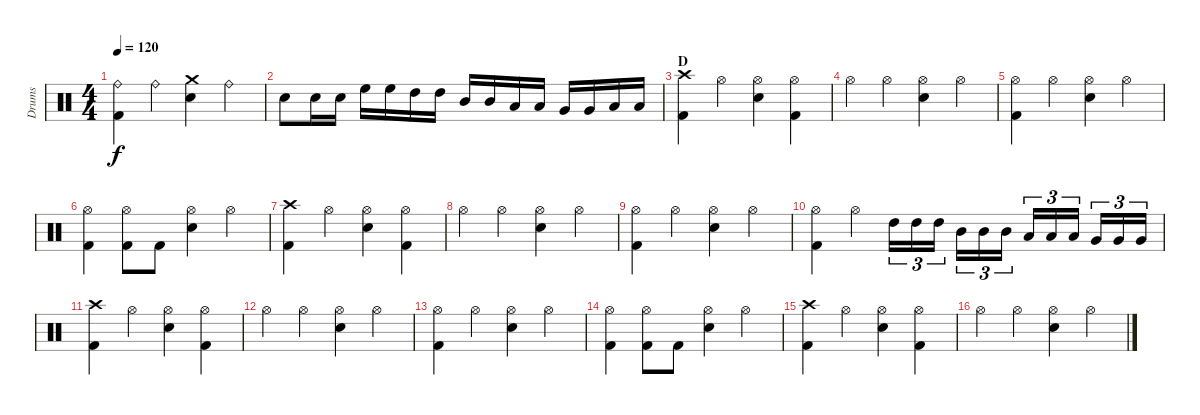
\track ("Drums" "Drums") {instrument percussion}
\staff {score}
\articulation defaults
\ts (4 4)
\tempo 120
\clef neutral
\ks c
("Ride (bell)" "Kick (hit) 2").4{dy f} "Ride (bell)".4 ("Crash medium (hit)" "Snare (hit) 2").4 "Ride (bell)".4 |
"Snare (hit) 2".8 "Snare (hit) 2".16 "Snare (hit) 2".16 "High Floor Tom (hit)".16 "High Floor Tom (hit)".16 "High Tom (hit)".16 "High Tom (hit)".16 "Mid Tom (hit)".16 "Mid Tom (hit)".16 "Low Tom (hit)".16 "Low Tom (hit)".16 "Very Low Tom (hit)".16 "Very Low Tom (hit)".16 "Low Floor Tom (hit)".16 "Low Floor Tom (hit)".16 |
\section ("" "D")
("Crash high (hit)" "Kick (hit) 2").4 "Hi-Hat (open)".4 ("Hi-Hat (open)" "Snare (hit) 2").4 ("Hi-Hat (open)" "Kick (hit) 2").4 |
"Hi-Hat (open)".4 "Hi-Hat (open)".4 ("Hi-Hat (open)" "Snare (hit) 2").4 "Hi-Hat (open)".4 |
("Hi-Hat (open)" "Kick (hit) 2").4 "Hi-Hat (open)".4 ("Hi-Hat (open)" "Snare (hit) 2").4 "Hi-Hat (open)".4 |
("Hi-Hat (open)" "Kick (hit) 2").4 ("Hi-Hat (open)" "Kick (hit) 2").8 "Kick (hit) 2".8 ("Hi-Hat (open)" "Snare (hit) 2").4 "Hi-Hat (open)".4 |
("Crash high (hit)" "Kick (hit) 2").4 "Hi-Hat (open)".4 ("Hi-Hat (open)" "Snare (hit) 2").4 ("Hi-Hat (open)" "Kick (hit) 2").4 |
"Hi-Hat (open)".4 "Hi-Hat (open)".4 ("Hi-Hat (open)" "Snare (hit) 2").4 "Hi-Hat (open)".4 |
("Hi-Hat (open)" "Kick (hit) 2").4 "Hi-Hat (open)".4 ("Hi-Hat (open)" "Snare (hit) 2").4 "Hi-Hat (open)".4 |
("Hi-Hat (open)" "Kick (hit) 2").4 "Hi-Hat (open)".4 "High Tom (hit)".16{tu (3 2)} "High Tom (hit)".16{tu (3 2)} "High Tom (hit)".16{tu (3 2)} "Mid Tom (hit)".16{tu (3 2)} "Mid Tom (hit)".16{tu (3 2)} "Mid Tom (hit)".16{tu (3 2)} "Low Tom (hit)".16{tu (3 2)} "Low Tom (hit)".16{tu (3 2)} "Low Tom (hit)".16{tu (3 2)} "Very Low Tom (hit)".16{tu (3 2)} "Very Low Tom (hit)".16{tu (3 2)} "Very Low Tom (hit)".16{tu (3 2)} |
("Crash high (hit)" "Kick (hit) 2").4 "Hi-Hat (open)".4 ("Hi-Hat (open)" "Snare (hit) 2").4 ("Hi-Hat (open)" "Kick (hit) 2").4 |
"Hi-Hat (open)".4 "Hi-Hat (open)".4 ("Hi-Hat (open)" "Snare (hit) 2").4 "Hi-Hat (open)".4 |
("Hi-Hat (open)" "Kick (hit) 2").4 "Hi-Hat (open)".4 ("Hi-Hat (open)" "Snare (hit) 2").4 "Hi-Hat (open)".4 |
("Hi-Hat (open)" "Kick (hit) 2").4 ("Hi-Hat (open)" "Kick (hit) 2").8 "Kick (hit) 2".8 ("Hi-Hat (open)" "Snare (hit) 2").4 "Hi-Hat (open)".4 |
("Crash high (hit)" "Kick (hit) 2").4 "Hi-Hat (open)".4 ("Hi-Hat (open)" "Snare (hit) 2").4 ("Hi-Hat (open)" "Kick (hit) 2").4 |
"Hi-Hat (open)".4 "Hi-Hat (open)".4 ("Hi-Hat (open)" "Snare (hit) 2").4 "Hi-Hat (open)".4
